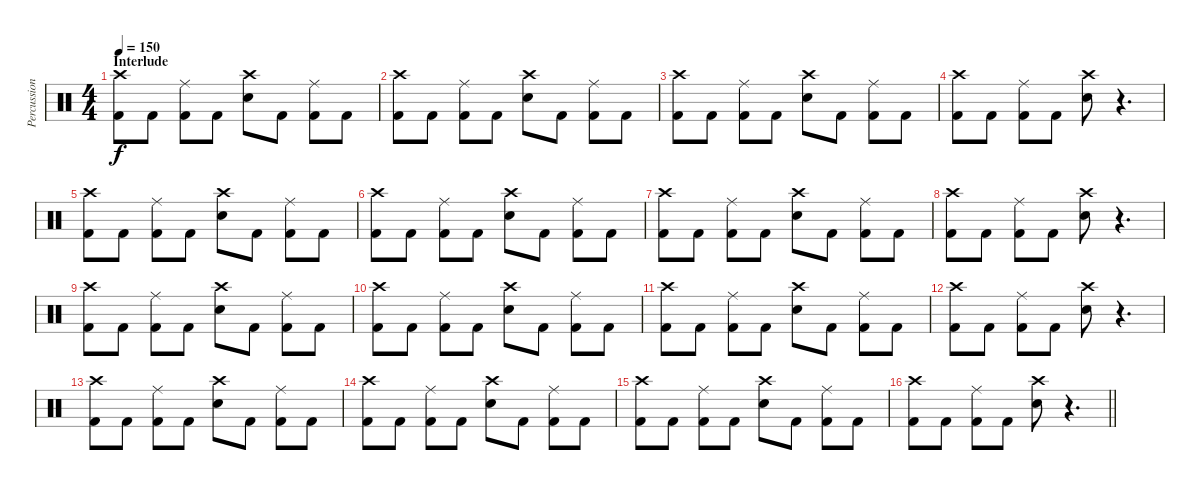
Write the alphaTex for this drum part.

\track ("Percussion" "Percussion") {instrument percussion}
\staff {score}
\articulation defaults
\ts (4 4)
\section ("" "Interlude")
\tempo 150
\clef neutral
\ks c
("Crash high (hit)" "Kick (hit) 2").8{dy f} "Kick (hit) 2".8 ("Ride (middle)" "Kick (hit) 2").8 "Kick (hit) 2".8 ("Crash high (hit)" "Snare (hit) 2").8 "Kick (hit) 2".8 ("Ride (middle)" "Kick (hit) 2").8 "Kick (hit) 2".8 |
("Crash high (hit)" "Kick (hit) 2").8 "Kick (hit) 2".8 ("Ride (middle)" "Kick (hit) 2").8 "Kick (hit) 2".8 ("Crash high (hit)" "Snare (hit) 2").8 "Kick (hit) 2".8 ("Ride (middle)" "Kick (hit) 2").8 "Kick (hit) 2".8 |
("Crash high (hit)" "Kick (hit) 2").8 "Kick (hit) 2".8 ("Ride (middle)" "Kick (hit) 2").8 "Kick (hit) 2".8 ("Crash high (hit)" "Snare (hit) 2").8 "Kick (hit) 2".8 ("Ride (middle)" "Kick (hit) 2").8 "Kick (hit) 2".8 |
("Crash high (hit)" "Kick (hit) 2").8 "Kick (hit) 2".8 ("Ride (middle)" "Kick (hit) 2").8 "Kick (hit) 2".8 ("Crash high (hit)" "Snare (hit) 2").8 r.4{d} |
("Crash high (hit)" "Kick (hit) 2").8 "Kick (hit) 2".8 ("Ride (middle)" "Kick (hit) 2").8 "Kick (hit) 2".8 ("Crash high (hit)" "Snare (hit) 2").8 "Kick (hit) 2".8 ("Ride (middle)" "Kick (hit) 2").8 "Kick (hit) 2".8 |
("Crash high (hit)" "Kick (hit) 2").8 "Kick (hit) 2".8 ("Ride (middle)" "Kick (hit) 2").8 "Kick (hit) 2".8 ("Crash high (hit)" "Snare (hit) 2").8 "Kick (hit) 2".8 ("Ride (middle)" "Kick (hit) 2").8 "Kick (hit) 2".8 |
("Crash high (hit)" "Kick (hit) 2").8 "Kick (hit) 2".8 ("Ride (middle)" "Kick (hit) 2").8 "Kick (hit) 2".8 ("Crash high (hit)" "Snare (hit) 2").8 "Kick (hit) 2".8 ("Ride (middle)" "Kick (hit) 2").8 "Kick (hit) 2".8 |
("Crash high (hit)" "Kick (hit) 2").8 "Kick (hit) 2".8 ("Ride (middle)" "Kick (hit) 2").8 "Kick (hit) 2".8 ("Crash high (hit)" "Snare (hit) 2").8 r.4{d} |
("Crash high (hit)" "Kick (hit) 2").8 "Kick (hit) 2".8 ("Ride (middle)" "Kick (hit) 2").8 "Kick (hit) 2".8 ("Crash high (hit)" "Snare (hit) 2").8 "Kick (hit) 2".8 ("Ride (middle)" "Kick (hit) 2").8 "Kick (hit) 2".8 |
("Crash high (hit)" "Kick (hit) 2").8 "Kick (hit) 2".8 ("Ride (middle)" "Kick (hit) 2").8 "Kick (hit) 2".8 ("Crash high (hit)" "Snare (hit) 2").8 "Kick (hit) 2".8 ("Ride (middle)" "Kick (hit) 2").8 "Kick (hit) 2".8 |
("Crash high (hit)" "Kick (hit) 2").8 "Kick (hit) 2".8 ("Ride (middle)" "Kick (hit) 2").8 "Kick (hit) 2".8 ("Crash high (hit)" "Snare (hit) 2").8 "Kick (hit) 2".8 ("Ride (middle)" "Kick (hit) 2").8 "Kick (hit) 2".8 |
("Crash high (hit)" "Kick (hit) 2").8 "Kick (hit) 2".8 ("Ride (middle)" "Kick (hit) 2").8 "Kick (hit) 2".8 ("Crash high (hit)" "Snare (hit) 2").8 r.4{d} |
("Crash high (hit)" "Kick (hit) 2").8 "Kick (hit) 2".8 ("Ride (middle)" "Kick (hit) 2").8 "Kick (hit) 2".8 ("Crash high (hit)" "Snare (hit) 2").8 "Kick (hit) 2".8 ("Ride (middle)" "Kick (hit) 2").8 "Kick (hit) 2".8 |
("Crash high (hit)" "Kick (hit) 2").8 "Kick (hit) 2".8 ("Ride (middle)" "Kick (hit) 2").8 "Kick (hit) 2".8 ("Crash high (hit)" "Snare (hit) 2").8 "Kick (hit) 2".8 ("Ride (middle)" "Kick (hit) 2").8 "Kick (hit) 2".8 |
("Crash high (hit)" "Kick (hit) 2").8 "Kick (hit) 2".8 ("Ride (middle)" "Kick (hit) 2").8 "Kick (hit) 2".8 ("Crash high (hit)" "Snare (hit) 2").8 "Kick (hit) 2".8 ("Ride (middle)" "Kick (hit) 2").8 "Kick (hit) 2".8 |
\barLineRight lightlight
("Crash high (hit)" "Kick (hit) 2").8 "Kick (hit) 2".8 ("Ride (middle)" "Kick (hit) 2").8 "Kick (hit) 2".8 ("Crash high (hit)" "Snare (hit) 2").8 r.4{d}
